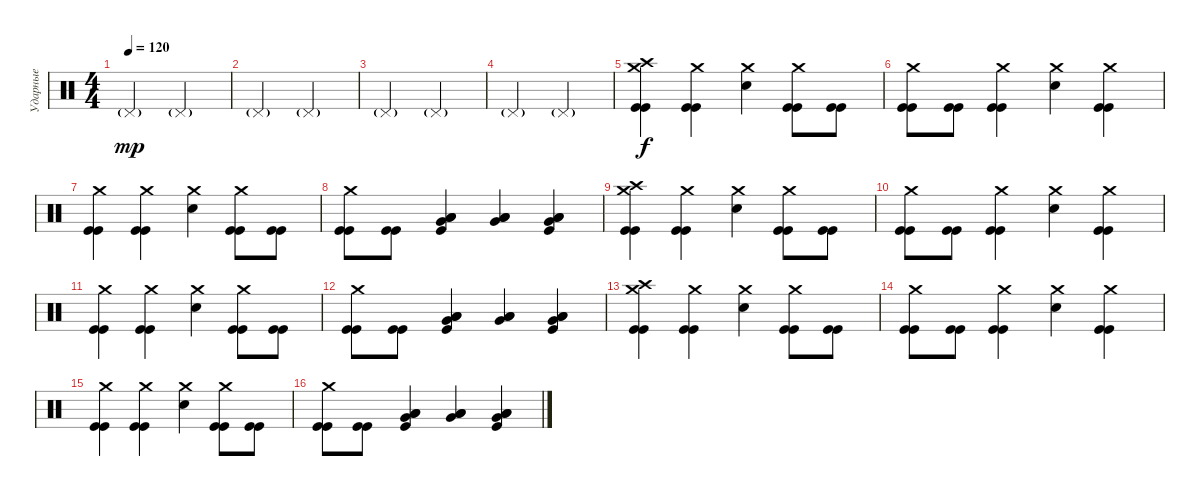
\track ("Ударные" "Ударные") {instrument percussion}
\staff {score}
\articulation defaults
\ts (4 4)
\tempo 120
\clef neutral
\ks c "Pedal Hi-Hat (hit)"{g}.2{dy mp} "Pedal Hi-Hat (hit)"{g}.2
|
"Pedal Hi-Hat (hit)"{g}.2 "Pedal Hi-Hat (hit)"{g}.2 |
"Pedal Hi-Hat (hit)"{g}.2 "Pedal Hi-Hat (hit)"{g}.2 |
"Pedal Hi-Hat (hit)"{g}.2 "Pedal Hi-Hat (hit)"{g}.2 |
("Crash high (hit)" "Crash medium (hit)" "Kick (hit)" "Kick (hit)").4{dy f} ("Crash medium (hit)" "Kick (hit)" "Kick (hit)").4 ("Snare (hit) 2" "Crash medium (hit)").4 ("Crash medium (hit)" "Kick (hit)" "Kick (hit)").8 ("Kick (hit)" "Kick (hit)").8 |
("Crash medium (hit)" "Kick (hit)" "Kick (hit)").8 ("Kick (hit)" "Kick (hit)").8 ("Crash medium (hit)" "Kick (hit)" "Kick (hit)").4 ("Snare (hit) 2" "Crash medium (hit)").4 ("Crash medium (hit)" "Kick (hit)" "Kick (hit)").4 |
("Crash medium (hit)" "Kick (hit)" "Kick (hit)").4 ("Crash medium (hit)" "Kick (hit)" "Kick (hit)").4 ("Snare (hit) 2" "Crash medium (hit)").4 ("Crash medium (hit)" "Kick (hit)" "Kick (hit)").8 ("Kick (hit)" "Kick (hit)").8 |
("Crash medium (hit)" "Kick (hit)" "Kick (hit)").8 ("Kick (hit)" "Kick (hit)").8 ("Low Tom (hit)" "Low Floor Tom (hit)" "Very Low Tom (hit)" "Kick (hit)").4 ("Low Tom (hit)" "Low Floor Tom (hit)" "Very Low Tom (hit)").4 ("Low Tom (hit)" "Low Floor Tom (hit)" "Very Low Tom (hit)" "Kick (hit)").4 |
("Crash high (hit)" "Crash medium (hit)" "Kick (hit)" "Kick (hit)").4 ("Crash medium (hit)" "Kick (hit)" "Kick (hit)").4 ("Snare (hit) 2" "Crash medium (hit)").4 ("Crash medium (hit)" "Kick (hit)" "Kick (hit)").8 ("Kick (hit)" "Kick (hit)").8 |
("Crash medium (hit)" "Kick (hit)" "Kick (hit)").8 ("Kick (hit)" "Kick (hit)").8 ("Crash medium (hit)" "Kick (hit)" "Kick (hit)").4 ("Snare (hit) 2" "Crash medium (hit)").4 ("Crash medium (hit)" "Kick (hit)" "Kick (hit)").4 |
("Crash medium (hit)" "Kick (hit)" "Kick (hit)").4 ("Crash medium (hit)" "Kick (hit)" "Kick (hit)").4 ("Snare (hit) 2" "Crash medium (hit)").4 ("Crash medium (hit)" "Kick (hit)" "Kick (hit)").8 ("Kick (hit)" "Kick (hit)").8 |
("Crash medium (hit)" "Kick (hit)" "Kick (hit)").8 ("Kick (hit)" "Kick (hit)").8 ("Low Tom (hit)" "Low Floor Tom (hit)" "Very Low Tom (hit)" "Kick (hit)").4 ("Low Tom (hit)" "Low Floor Tom (hit)" "Very Low Tom (hit)").4 ("Low Tom (hit)" "Low Floor Tom (hit)" "Very Low Tom (hit)" "Kick (hit)").4 |
("Crash high (hit)" "Crash medium (hit)" "Kick (hit)" "Kick (hit)").4 ("Crash medium (hit)" "Kick (hit)" "Kick (hit)").4 ("Snare (hit) 2" "Crash medium (hit)").4 ("Crash medium (hit)" "Kick (hit)" "Kick (hit)").8 ("Kick (hit)" "Kick (hit)").8 |
("Crash medium (hit)" "Kick (hit)" "Kick (hit)").8 ("Kick (hit)" "Kick (hit)").8 ("Crash medium (hit)" "Kick (hit)" "Kick (hit)").4 ("Snare (hit) 2" "Crash medium (hit)").4 ("Crash medium (hit)" "Kick (hit)" "Kick (hit)").4 |
("Crash medium (hit)" "Kick (hit)" "Kick (hit)").4 ("Crash medium (hit)" "Kick (hit)" "Kick (hit)").4 ("Snare (hit) 2" "Crash medium (hit)").4 ("Crash medium (hit)" "Kick (hit)" "Kick (hit)").8 ("Kick (hit)" "Kick (hit)").8 |
("Crash medium (hit)" "Kick (hit)" "Kick (hit)").8 ("Kick (hit)" "Kick (hit)").8 ("Low Tom (hit)" "Low Floor Tom (hit)" "Very Low Tom (hit)" "Kick (hit)").4 ("Low Tom (hit)" "Low Floor Tom (hit)" "Very Low Tom (hit)").4 ("Low Tom (hit)" "Low Floor Tom (hit)" "Very Low Tom (hit)" "Kick (hit)").4
